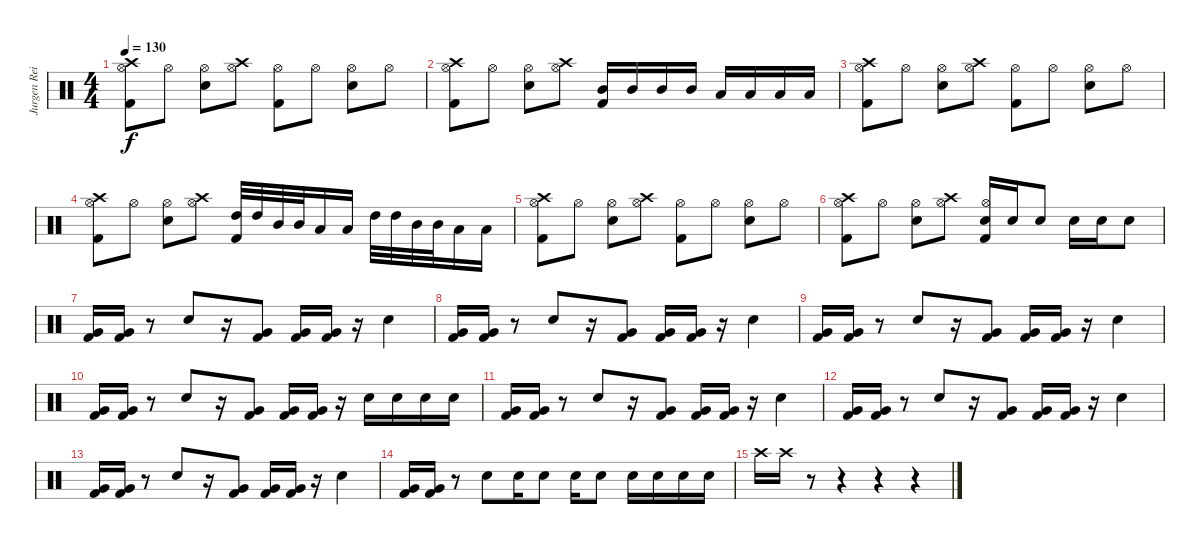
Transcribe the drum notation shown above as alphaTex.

\track ("Jurgen Reil" "Jurgen Rei") {instrument percussion}
\staff {score}
\articulation defaults
\ts (4 4)
\tempo 130
\clef neutral
\ks c
("Kick (hit) 2" "Crash high (hit)" "Hi-Hat (open)").8{dy f} "Hi-Hat (open)".8 ("Snare (hit) 2" "Hi-Hat (open)").8 ("Crash high (hit)" "Hi-Hat (open)").8 ("Kick (hit) 2" "Hi-Hat (open)").8 "Hi-Hat (open)".8 ("Snare (hit) 2" "Hi-Hat (open)").8 "Hi-Hat (open)".8 |
("Kick (hit) 2" "Crash high (hit)" "Hi-Hat (open)").8 "Hi-Hat (open)".8 ("Snare (hit) 2" "Hi-Hat (open)").8 ("Crash high (hit)" "Hi-Hat (open)").8 ("Kick (hit) 2" "Mid Tom (hit)").16 "Mid Tom (hit)".16 "Mid Tom (hit)".16 "Mid Tom (hit)".16 "Low Tom (hit)".16 "Low Tom (hit)".16 "Low Tom (hit)".16 "Low Tom (hit)".16 |
("Kick (hit) 2" "Crash high (hit)" "Hi-Hat (open)").8 "Hi-Hat (open)".8 ("Snare (hit) 2" "Hi-Hat (open)").8 ("Crash high (hit)" "Hi-Hat (open)").8 ("Kick (hit) 2" "Hi-Hat (open)").8 "Hi-Hat (open)".8 ("Snare (hit) 2" "Hi-Hat (open)").8 "Hi-Hat (open)".8 |
("Kick (hit) 2" "Crash high (hit)" "Hi-Hat (open)").8 "Hi-Hat (open)".8 ("Snare (hit) 2" "Hi-Hat (open)").8 ("Crash high (hit)" "Hi-Hat (open)").8 ("Kick (hit) 2" "High Tom (hit)").32 "High Tom (hit)".32 "Mid Tom (hit)".32 "Mid Tom (hit)".32 "Low Tom (hit)".16 "Low Tom (hit)".16 "High Tom (hit)".32 "High Tom (hit)".32 "Mid Tom (hit)".32 "Mid Tom (hit)".32 "Low Tom (hit)".16 "Low Tom (hit)".16 |
("Kick (hit) 2" "Crash high (hit)" "Hi-Hat (open)").8 "Hi-Hat (open)".8 ("Snare (hit) 2" "Hi-Hat (open)").8 ("Crash high (hit)" "Hi-Hat (open)").8 ("Kick (hit) 2" "Hi-Hat (open)").8 "Hi-Hat (open)".8 ("Snare (hit) 2" "Hi-Hat (open)").8 "Hi-Hat (open)".8 |
("Kick (hit) 2" "Crash high (hit)" "Hi-Hat (open)").8 "Hi-Hat (open)".8 ("Snare (hit) 2" "Hi-Hat (open)").8 ("Crash high (hit)" "Hi-Hat (open)").8 ("Kick (hit) 2" "Snare (hit) 2" "Hi-Hat (open)").16 "Snare (hit) 2".16 "Snare (hit) 2".8 "Snare (hit) 2".16 "Snare (hit) 2".16 "Snare (hit) 2".8 |
("Kick (hit) 2" "Very Low Tom (hit)").16 ("Kick (hit) 2" "Very Low Tom (hit)").16 r.8 "Snare (hit) 2".8 r.16 ("Kick (hit) 2" "Very Low Tom (hit)").8 ("Kick (hit) 2" "Very Low Tom (hit)").16 ("Kick (hit) 2" "Very Low Tom (hit)").16 r.16 "Snare (hit) 2".4 |
("Kick (hit) 2" "Very Low Tom (hit)").16 ("Kick (hit) 2" "Very Low Tom (hit)").16 r.8 "Snare (hit) 2".8 r.16 ("Kick (hit) 2" "Very Low Tom (hit)").8 ("Kick (hit) 2" "Very Low Tom (hit)").16 ("Kick (hit) 2" "Very Low Tom (hit)").16 r.16 "Snare (hit) 2".4 |
("Kick (hit) 2" "Very Low Tom (hit)").16 ("Kick (hit) 2" "Very Low Tom (hit)").16 r.8 "Snare (hit) 2".8 r.16 ("Kick (hit) 2" "Very Low Tom (hit)").8 ("Kick (hit) 2" "Very Low Tom (hit)").16 ("Kick (hit) 2" "Very Low Tom (hit)").16 r.16 "Snare (hit) 2".4 |
("Kick (hit) 2" "Very Low Tom (hit)").16 ("Kick (hit) 2" "Very Low Tom (hit)").16 r.8 "Snare (hit) 2".8 r.16 ("Kick (hit) 2" "Very Low Tom (hit)").8 ("Kick (hit) 2" "Very Low Tom (hit)").16 ("Kick (hit) 2" "Very Low Tom (hit)").16 r.16 "Snare (hit) 2".16 "Snare (hit) 2".16 "Snare (hit) 2".16 "Snare (hit) 2".16 |
("Kick (hit) 2" "Very Low Tom (hit)").16 ("Kick (hit) 2" "Very Low Tom (hit)").16 r.8 "Snare (hit) 2".8 r.16 ("Kick (hit) 2" "Very Low Tom (hit)").8 ("Kick (hit) 2" "Very Low Tom (hit)").16 ("Kick (hit) 2" "Very Low Tom (hit)").16 r.16 "Snare (hit) 2".4 |
("Kick (hit) 2" "Very Low Tom (hit)").16 ("Kick (hit) 2" "Very Low Tom (hit)").16 r.8 "Snare (hit) 2".8 r.16 ("Kick (hit) 2" "Very Low Tom (hit)").8 ("Kick (hit) 2" "Very Low Tom (hit)").16 ("Kick (hit) 2" "Very Low Tom (hit)").16 r.16 "Snare (hit) 2".4 |
("Kick (hit) 2" "Very Low Tom (hit)").16 ("Kick (hit) 2" "Very Low Tom (hit)").16 r.8 "Snare (hit) 2".8 r.16 ("Kick (hit) 2" "Very Low Tom (hit)").8 ("Kick (hit) 2" "Very Low Tom (hit)").16 ("Kick (hit) 2" "Very Low Tom (hit)").16 r.16 "Snare (hit) 2".4 |
("Kick (hit) 2" "Very Low Tom (hit)").16 ("Kick (hit) 2" "Very Low Tom (hit)").16 r.8 "Snare (hit) 2".8 "Snare (hit) 2".16 "Snare (hit) 2".8 "Snare (hit) 2".16 "Snare (hit) 2".8 "Snare (hit) 2".16 "Snare (hit) 2".16 "Snare (hit) 2".16 "Snare (hit) 2".16 |
"Crash high (hit)".16 "Crash high (hit)".16 r.8 r.4 r.4 r.4
